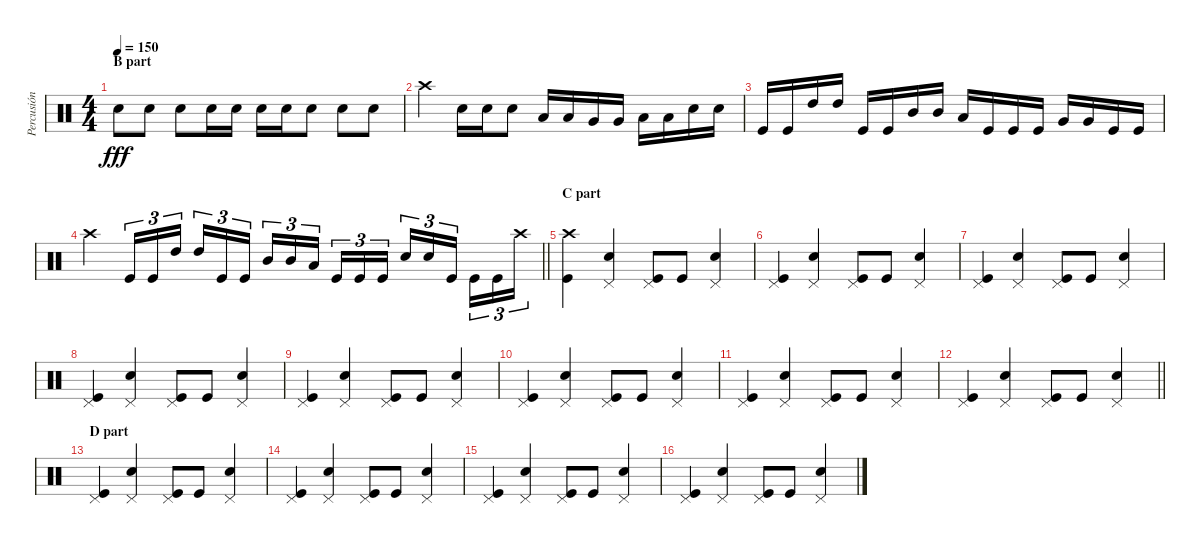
\track ("Percusión" "Percusión") {instrument percussion}
\staff {score}
\articulation defaults
\ts (4 4)
\section ("" "B part")
\tempo 150
\clef neutral
\ks c "Electric Snare (hit)".8{dy fff} "Electric Snare (hit)".8 "Electric Snare (hit)".8 "Electric Snare (hit)".16 "Electric Snare (hit)".16 "Electric Snare (hit)".16 "Electric Snare (hit)".16 "Electric Snare (hit)".8 "Electric Snare (hit)".8 "Electric Snare (hit)".8
|
"Crash high (hit)".4 "Electric Snare (hit)".16 "Electric Snare (hit)".16 "Electric Snare (hit)".8 "Low Tom (hit)".16 "Low Tom (hit)".16 "Very Low Tom (hit)".16 "Very Low Tom (hit)".16 "Low Floor Tom (hit)".16 "Low Floor Tom (hit)".16 "Electric Snare (hit)".16 "Electric Snare (hit)".16 |
"Kick (hit)".16 "Kick (hit)".16 "High Tom (hit)".16 "High Tom (hit)".16 "Kick (hit)".16 "Kick (hit)".16 "Mid Tom (hit)".16 "Mid Tom (hit)".16 "Low Tom (hit)".16 "Kick (hit)".16 "Kick (hit)".16 "Kick (hit)".16 "Very Low Tom (hit)".16 "Very Low Tom (hit)".16 "Kick (hit)".16 "Kick (hit)".16 |
\barLineRight lightlight "Crash high (hit)".4 "Kick (hit)".16{tu (3 2)} "Kick (hit)".16{tu (3 2)} "High Tom (hit)".16{tu (3 2) beam splitsecondary} "High Tom (hit)".16{tu (3 2)} "Kick (hit)".16{tu (3 2)} "Kick (hit)".16{tu (3 2)} "Mid Tom (hit)".16{tu (3 2)} "Mid Tom (hit)".16{tu (3 2)} "Low Tom (hit)".16{tu (3 2) beam splitsecondary} "Kick (hit)".16{tu (3 2)} "Kick (hit)".16{tu (3 2)} "Kick (hit)".16{tu (3 2)} "Electric Snare (hit)".16{tu (3 2)} "Electric Snare (hit)".16{tu (3 2)} "Kick (hit)".16{tu (3 2) beam splitsecondary} "Kick (hit)".16{tu (3 2)} "Kick (hit)".16{tu (3 2)} "Crash high (hit)".16{tu (3 2)}
|
\section ("" "C part")
("Crash high (hit)" "Kick (hit)").4 ("Pedal Hi-Hat (hit)" "Electric Snare (hit)").4 ("Pedal Hi-Hat (hit)" "Kick (hit)").8 "Kick (hit)".8 ("Pedal Hi-Hat (hit)" "Electric Snare (hit)").4 |
("Pedal Hi-Hat (hit)" "Kick (hit)").4 ("Pedal Hi-Hat (hit)" "Electric Snare (hit)").4 ("Pedal Hi-Hat (hit)" "Kick (hit)").8 "Kick (hit)".8 ("Pedal Hi-Hat (hit)" "Electric Snare (hit)").4 |
("Pedal Hi-Hat (hit)" "Kick (hit)").4 ("Pedal Hi-Hat (hit)" "Electric Snare (hit)").4 ("Pedal Hi-Hat (hit)" "Kick (hit)").8 "Kick (hit)".8 ("Pedal Hi-Hat (hit)" "Electric Snare (hit)").4 |
("Pedal Hi-Hat (hit)" "Kick (hit)").4 ("Pedal Hi-Hat (hit)" "Electric Snare (hit)").4 ("Pedal Hi-Hat (hit)" "Kick (hit)").8 "Kick (hit)".8 ("Pedal Hi-Hat (hit)" "Electric Snare (hit)").4 |
("Pedal Hi-Hat (hit)" "Kick (hit)").4 ("Pedal Hi-Hat (hit)" "Electric Snare (hit)").4 ("Pedal Hi-Hat (hit)" "Kick (hit)").8 "Kick (hit)".8 ("Pedal Hi-Hat (hit)" "Electric Snare (hit)").4 |
("Pedal Hi-Hat (hit)" "Kick (hit)").4 ("Pedal Hi-Hat (hit)" "Electric Snare (hit)").4 ("Pedal Hi-Hat (hit)" "Kick (hit)").8 "Kick (hit)".8 ("Pedal Hi-Hat (hit)" "Electric Snare (hit)").4 |
("Pedal Hi-Hat (hit)" "Kick (hit)").4 ("Pedal Hi-Hat (hit)" "Electric Snare (hit)").4 ("Pedal Hi-Hat (hit)" "Kick (hit)").8 "Kick (hit)".8 ("Pedal Hi-Hat (hit)" "Electric Snare (hit)").4 |
\barLineRight lightlight
("Pedal Hi-Hat (hit)" "Kick (hit)").4 ("Pedal Hi-Hat (hit)" "Electric Snare (hit)").4 ("Pedal Hi-Hat (hit)" "Kick (hit)").8 "Kick (hit)".8 ("Pedal Hi-Hat (hit)" "Electric Snare (hit)").4 |
\section ("" "D part")
("Pedal Hi-Hat (hit)" "Kick (hit)").4 ("Pedal Hi-Hat (hit)" "Electric Snare (hit)").4 ("Pedal Hi-Hat (hit)" "Kick (hit)").8 "Kick (hit)".8 ("Pedal Hi-Hat (hit)" "Electric Snare (hit)").4 |
("Pedal Hi-Hat (hit)" "Kick (hit)").4 ("Pedal Hi-Hat (hit)" "Electric Snare (hit)").4 ("Pedal Hi-Hat (hit)" "Kick (hit)").8 "Kick (hit)".8 ("Pedal Hi-Hat (hit)" "Electric Snare (hit)").4 |
("Pedal Hi-Hat (hit)" "Kick (hit)").4 ("Pedal Hi-Hat (hit)" "Electric Snare (hit)").4 ("Pedal Hi-Hat (hit)" "Kick (hit)").8 "Kick (hit)".8 ("Pedal Hi-Hat (hit)" "Electric Snare (hit)").4 |
("Pedal Hi-Hat (hit)" "Kick (hit)").4 ("Pedal Hi-Hat (hit)" "Electric Snare (hit)").4 ("Pedal Hi-Hat (hit)" "Kick (hit)").8 "Kick (hit)".8 ("Pedal Hi-Hat (hit)" "Electric Snare (hit)").4
